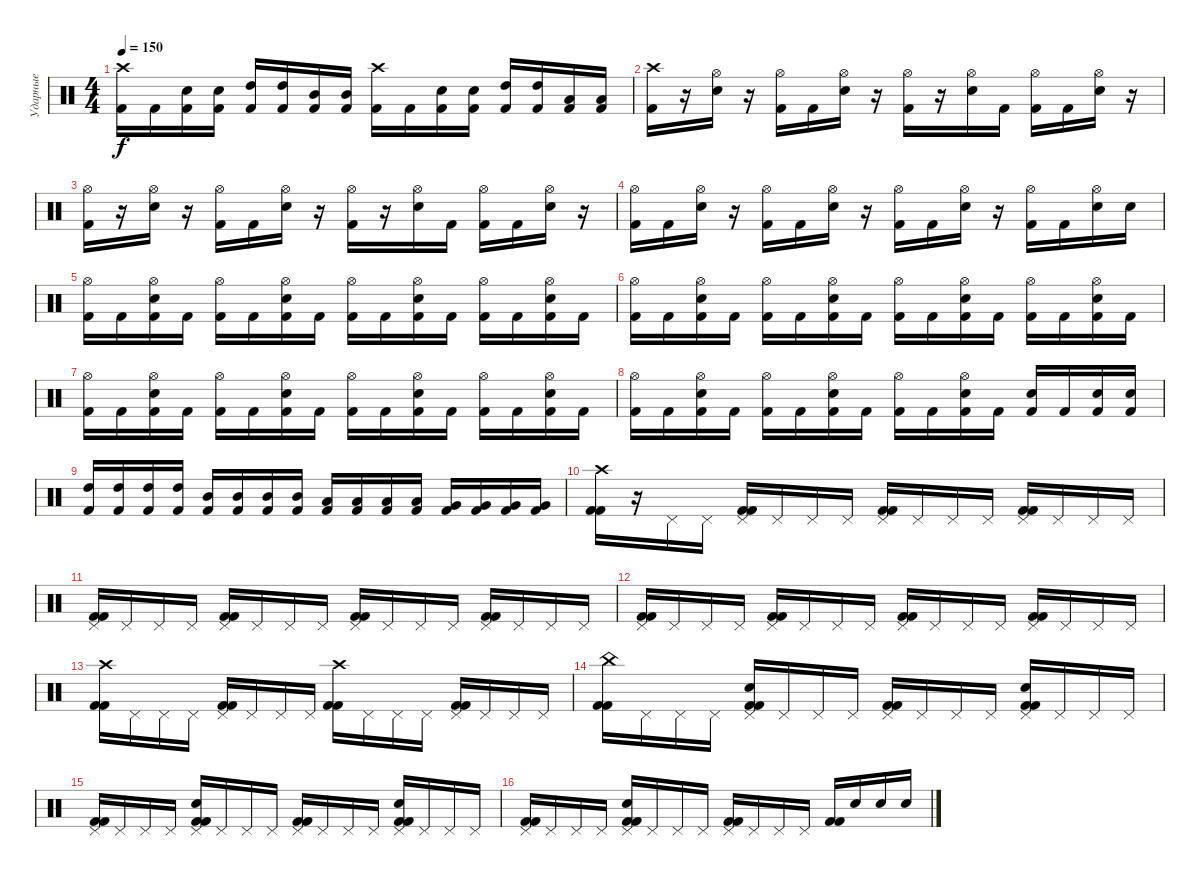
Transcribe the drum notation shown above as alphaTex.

\track ("Ударные" "Ударные") {instrument percussion}
\staff {score}
\articulation defaults
\ts (4 4)
\tempo 150
\clef neutral
\ks c
("Crash high (hit)" "Kick (hit) 2").16{dy f} "Kick (hit) 2".16 ("Electric Snare (hit)" "Kick (hit) 2").16 ("Electric Snare (hit)" "Kick (hit) 2").16 ("High Tom (hit)" "Kick (hit) 2").16 ("High Tom (hit)" "Kick (hit) 2").16 ("Mid Tom (hit)" "Kick (hit) 2").16 ("Mid Tom (hit)" "Kick (hit) 2").16 ("Crash high (hit)" "Kick (hit) 2").16 "Kick (hit) 2".16 ("Electric Snare (hit)" "Kick (hit) 2").16 ("Electric Snare (hit)" "Kick (hit) 2").16 ("High Tom (hit)" "Kick (hit) 2").16 ("High Tom (hit)" "Kick (hit) 2").16 ("Low Tom (hit)" "Kick (hit) 2").16 ("Low Tom (hit)" "Kick (hit) 2").16 |
("Crash high (hit)" "Kick (hit) 2").16 r.16 ("Hi-Hat (open)" "Electric Snare (hit)").16 r.16 ("Hi-Hat (open)" "Kick (hit) 2").16 "Kick (hit) 2".16 ("Hi-Hat (open)" "Electric Snare (hit)").16 r.16 ("Hi-Hat (open)" "Kick (hit) 2").16 r.16 ("Hi-Hat (open)" "Electric Snare (hit)").16 "Kick (hit) 2".16 ("Hi-Hat (open)" "Kick (hit) 2").16 "Kick (hit) 2".16 ("Hi-Hat (open)" "Electric Snare (hit)").16 r.16 |
("Hi-Hat (open)" "Kick (hit) 2").16 r.16 ("Hi-Hat (open)" "Electric Snare (hit)").16 r.16 ("Hi-Hat (open)" "Kick (hit) 2").16 "Kick (hit) 2".16 ("Hi-Hat (open)" "Electric Snare (hit)").16 r.16 ("Hi-Hat (open)" "Kick (hit) 2").16 r.16 ("Hi-Hat (open)" "Electric Snare (hit)").16 "Kick (hit) 2".16 ("Hi-Hat (open)" "Kick (hit) 2").16 "Kick (hit) 2".16 ("Hi-Hat (open)" "Electric Snare (hit)").16 r.16 |
("Hi-Hat (open)" "Kick (hit) 2").16 "Kick (hit) 2".16 ("Hi-Hat (open)" "Electric Snare (hit)").16 r.16 ("Hi-Hat (open)" "Kick (hit) 2").16 "Kick (hit) 2".16 ("Hi-Hat (open)" "Electric Snare (hit)").16 r.16 ("Hi-Hat (open)" "Kick (hit) 2").16 "Kick (hit) 2".16 ("Hi-Hat (open)" "Electric Snare (hit)").16 r.16 ("Hi-Hat (open)" "Kick (hit) 2").16 "Kick (hit) 2".16 ("Hi-Hat (open)" "Electric Snare (hit)").16 "Electric Snare (hit)".16 |
("Hi-Hat (open)" "Kick (hit) 2").16 "Kick (hit) 2".16 ("Hi-Hat (open)" "Electric Snare (hit)" "Kick (hit) 2").16 "Kick (hit) 2".16 ("Hi-Hat (open)" "Kick (hit) 2").16 "Kick (hit) 2".16 ("Hi-Hat (open)" "Electric Snare (hit)" "Kick (hit) 2").16 "Kick (hit) 2".16 ("Hi-Hat (open)" "Kick (hit) 2").16 "Kick (hit) 2".16 ("Hi-Hat (open)" "Electric Snare (hit)" "Kick (hit) 2").16 "Kick (hit) 2".16 ("Hi-Hat (open)" "Kick (hit) 2").16 "Kick (hit) 2".16 ("Hi-Hat (open)" "Electric Snare (hit)" "Kick (hit) 2").16 "Kick (hit) 2".16 |
("Hi-Hat (open)" "Kick (hit) 2").16 "Kick (hit) 2".16 ("Hi-Hat (open)" "Electric Snare (hit)" "Kick (hit) 2").16 "Kick (hit) 2".16 ("Hi-Hat (open)" "Kick (hit) 2").16 "Kick (hit) 2".16 ("Hi-Hat (open)" "Electric Snare (hit)" "Kick (hit) 2").16 "Kick (hit) 2".16 ("Hi-Hat (open)" "Kick (hit) 2").16 "Kick (hit) 2".16 ("Hi-Hat (open)" "Electric Snare (hit)" "Kick (hit) 2").16 "Kick (hit) 2".16 ("Hi-Hat (open)" "Kick (hit) 2").16 "Kick (hit) 2".16 ("Hi-Hat (open)" "Electric Snare (hit)" "Kick (hit) 2").16 "Kick (hit) 2".16 |
("Hi-Hat (open)" "Kick (hit) 2").16 "Kick (hit) 2".16 ("Hi-Hat (open)" "Electric Snare (hit)" "Kick (hit) 2").16 "Kick (hit) 2".16 ("Hi-Hat (open)" "Kick (hit) 2").16 "Kick (hit) 2".16 ("Hi-Hat (open)" "Electric Snare (hit)" "Kick (hit) 2").16 "Kick (hit) 2".16 ("Hi-Hat (open)" "Kick (hit) 2").16 "Kick (hit) 2".16 ("Hi-Hat (open)" "Electric Snare (hit)" "Kick (hit) 2").16 "Kick (hit) 2".16 ("Hi-Hat (open)" "Kick (hit) 2").16 "Kick (hit) 2".16 ("Hi-Hat (open)" "Electric Snare (hit)" "Kick (hit) 2").16 "Kick (hit) 2".16 |
("Hi-Hat (open)" "Kick (hit) 2").16 "Kick (hit) 2".16 ("Hi-Hat (open)" "Electric Snare (hit)" "Kick (hit) 2").16 "Kick (hit) 2".16 ("Hi-Hat (open)" "Kick (hit) 2").16 "Kick (hit) 2".16 ("Hi-Hat (open)" "Electric Snare (hit)" "Kick (hit) 2").16 "Kick (hit) 2".16 ("Hi-Hat (open)" "Kick (hit) 2").16 "Kick (hit) 2".16 ("Hi-Hat (open)" "Electric Snare (hit)" "Kick (hit) 2").16 "Kick (hit) 2".16 ("Electric Snare (hit)" "Kick (hit) 2").16 "Kick (hit) 2".16 ("Electric Snare (hit)" "Kick (hit) 2").16 ("Electric Snare (hit)" "Kick (hit) 2").16 |
("High Tom (hit)" "Kick (hit) 2").16 ("High Tom (hit)" "Kick (hit) 2").16 ("High Tom (hit)" "Kick (hit) 2").16 ("High Tom (hit)" "Kick (hit) 2").16 ("Mid Tom (hit)" "Kick (hit) 2").16 ("Mid Tom (hit)" "Kick (hit) 2").16 ("Mid Tom (hit)" "Kick (hit) 2").16 ("Mid Tom (hit)" "Kick (hit) 2").16 ("Low Tom (hit)" "Kick (hit) 2").16 ("Low Tom (hit)" "Kick (hit) 2").16 ("Low Tom (hit)" "Kick (hit) 2").16 ("Low Tom (hit)" "Kick (hit) 2").16 ("Very Low Tom (hit)" "Kick (hit) 2").16 ("Very Low Tom (hit)" "Kick (hit) 2").16 ("Very Low Tom (hit)" "Kick (hit) 2").16 ("Very Low Tom (hit)" "Kick (hit) 2").16 |
("Crash high (hit)" "Kick (hit) 2" "Kick (hit) 2").16 r.16 "Pedal Hi-Hat (hit)".16 "Pedal Hi-Hat (hit)".16 ("Pedal Hi-Hat (hit)" "Kick (hit) 2" "Kick (hit) 2").16 "Pedal Hi-Hat (hit)".16 "Pedal Hi-Hat (hit)".16 "Pedal Hi-Hat (hit)".16 ("Pedal Hi-Hat (hit)" "Kick (hit) 2" "Kick (hit) 2").16 "Pedal Hi-Hat (hit)".16 "Pedal Hi-Hat (hit)".16 "Pedal Hi-Hat (hit)".16 ("Pedal Hi-Hat (hit)" "Kick (hit) 2" "Kick (hit) 2").16 "Pedal Hi-Hat (hit)".16 "Pedal Hi-Hat (hit)".16 "Pedal Hi-Hat (hit)".16 |
("Pedal Hi-Hat (hit)" "Kick (hit) 2" "Kick (hit) 2").16 "Pedal Hi-Hat (hit)".16 "Pedal Hi-Hat (hit)".16 "Pedal Hi-Hat (hit)".16 ("Pedal Hi-Hat (hit)" "Kick (hit) 2" "Kick (hit) 2").16 "Pedal Hi-Hat (hit)".16 "Pedal Hi-Hat (hit)".16 "Pedal Hi-Hat (hit)".16 ("Pedal Hi-Hat (hit)" "Kick (hit) 2" "Kick (hit) 2").16 "Pedal Hi-Hat (hit)".16 "Pedal Hi-Hat (hit)".16 "Pedal Hi-Hat (hit)".16 ("Pedal Hi-Hat (hit)" "Kick (hit) 2" "Kick (hit) 2").16 "Pedal Hi-Hat (hit)".16 "Pedal Hi-Hat (hit)".16 "Pedal Hi-Hat (hit)".16 |
("Pedal Hi-Hat (hit)" "Kick (hit) 2" "Kick (hit) 2").16 "Pedal Hi-Hat (hit)".16 "Pedal Hi-Hat (hit)".16 "Pedal Hi-Hat (hit)".16 ("Pedal Hi-Hat (hit)" "Kick (hit) 2" "Kick (hit) 2").16 "Pedal Hi-Hat (hit)".16 "Pedal Hi-Hat (hit)".16 "Pedal Hi-Hat (hit)".16 ("Pedal Hi-Hat (hit)" "Kick (hit) 2" "Kick (hit) 2").16 "Pedal Hi-Hat (hit)".16 "Pedal Hi-Hat (hit)".16 "Pedal Hi-Hat (hit)".16 ("Pedal Hi-Hat (hit)" "Kick (hit) 2" "Kick (hit) 2").16 "Pedal Hi-Hat (hit)".16 "Pedal Hi-Hat (hit)".16 "Pedal Hi-Hat (hit)".16 |
("Crash high (hit)" "Kick (hit) 2" "Kick (hit) 2").16 "Pedal Hi-Hat (hit)".16 "Pedal Hi-Hat (hit)".16 "Pedal Hi-Hat (hit)".16 ("Pedal Hi-Hat (hit)" "Kick (hit) 2" "Kick (hit) 2").16 "Pedal Hi-Hat (hit)".16 "Pedal Hi-Hat (hit)".16 "Pedal Hi-Hat (hit)".16 ("Crash high (hit)" "Kick (hit) 2" "Kick (hit) 2").16 "Pedal Hi-Hat (hit)".16 "Pedal Hi-Hat (hit)".16 "Pedal Hi-Hat (hit)".16 ("Pedal Hi-Hat (hit)" "Kick (hit) 2" "Kick (hit) 2").16 "Pedal Hi-Hat (hit)".16 "Pedal Hi-Hat (hit)".16 "Pedal Hi-Hat (hit)".16 |
("China (hit)" "Kick (hit) 2" "Kick (hit) 2").16 "Pedal Hi-Hat (hit)".16 "Pedal Hi-Hat (hit)".16 "Pedal Hi-Hat (hit)".16 ("Pedal Hi-Hat (hit)" "Kick (hit) 2" "Electric Snare (hit)" "Kick (hit) 2").16 "Pedal Hi-Hat (hit)".16 "Pedal Hi-Hat (hit)".16 "Pedal Hi-Hat (hit)".16 ("Pedal Hi-Hat (hit)" "Kick (hit) 2" "Kick (hit) 2").16 "Pedal Hi-Hat (hit)".16 "Pedal Hi-Hat (hit)".16 "Pedal Hi-Hat (hit)".16 ("Pedal Hi-Hat (hit)" "Kick (hit) 2" "Electric Snare (hit)" "Kick (hit) 2").16 "Pedal Hi-Hat (hit)".16 "Pedal Hi-Hat (hit)".16 "Pedal Hi-Hat (hit)".16 |
("Pedal Hi-Hat (hit)" "Kick (hit) 2" "Kick (hit) 2").16 "Pedal Hi-Hat (hit)".16 "Pedal Hi-Hat (hit)".16 "Pedal Hi-Hat (hit)".16 ("Pedal Hi-Hat (hit)" "Kick (hit) 2" "Electric Snare (hit)" "Kick (hit) 2").16 "Pedal Hi-Hat (hit)".16 "Pedal Hi-Hat (hit)".16 "Pedal Hi-Hat (hit)".16 ("Pedal Hi-Hat (hit)" "Kick (hit) 2" "Kick (hit) 2").16 "Pedal Hi-Hat (hit)".16 "Pedal Hi-Hat (hit)".16 "Pedal Hi-Hat (hit)".16 ("Pedal Hi-Hat (hit)" "Kick (hit) 2" "Electric Snare (hit)" "Kick (hit) 2").16 "Pedal Hi-Hat (hit)".16 "Pedal Hi-Hat (hit)".16 "Pedal Hi-Hat (hit)".16 |
("Pedal Hi-Hat (hit)" "Kick (hit) 2" "Kick (hit) 2").16 "Pedal Hi-Hat (hit)".16 "Pedal Hi-Hat (hit)".16 "Pedal Hi-Hat (hit)".16 ("Pedal Hi-Hat (hit)" "Kick (hit) 2" "Electric Snare (hit)" "Kick (hit) 2").16 "Pedal Hi-Hat (hit)".16 "Pedal Hi-Hat (hit)".16 "Pedal Hi-Hat (hit)".16 ("Pedal Hi-Hat (hit)" "Kick (hit) 2" "Kick (hit) 2").16 "Pedal Hi-Hat (hit)".16 "Pedal Hi-Hat (hit)".16 "Pedal Hi-Hat (hit)".16 ("Kick (hit) 2" "Kick (hit) 2").16 "Electric Snare (hit)".16 "Electric Snare (hit)".16 "Electric Snare (hit)".16
